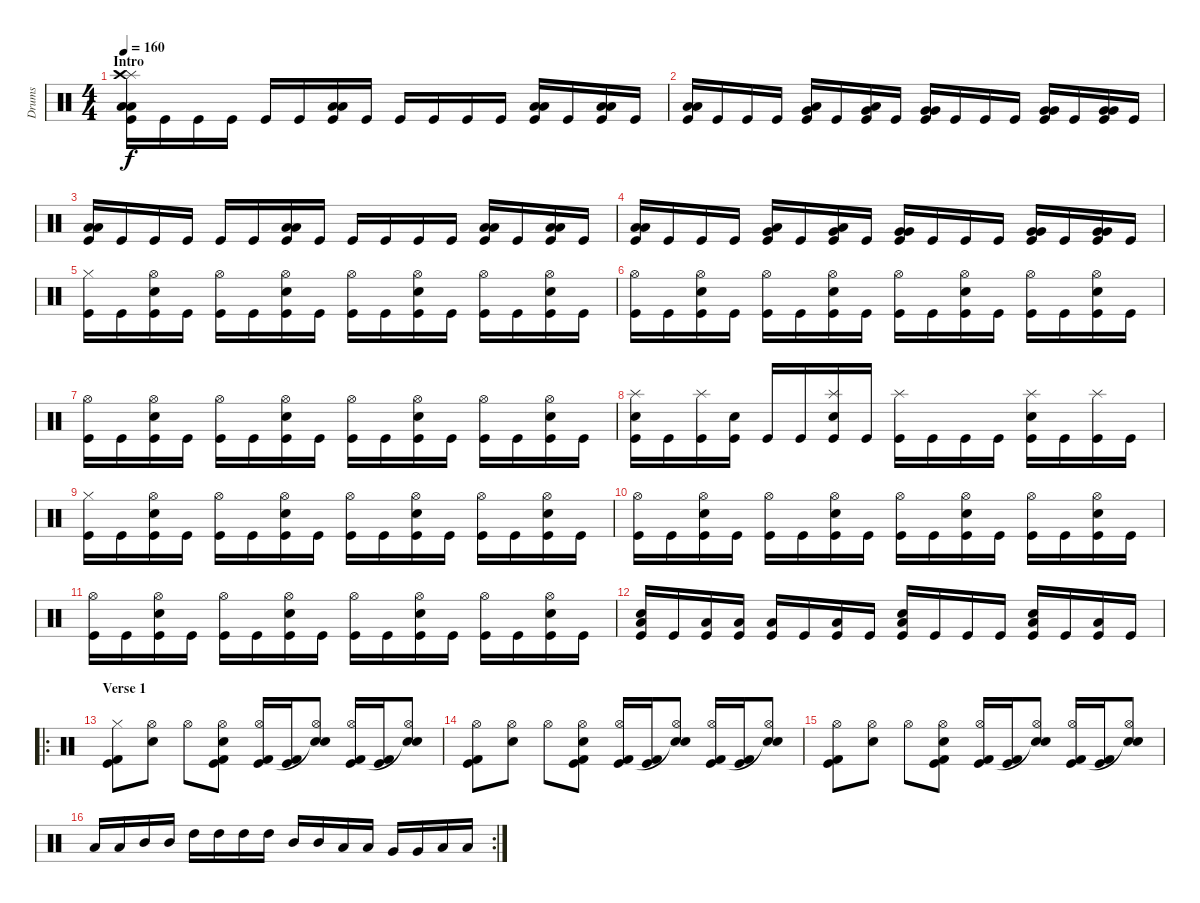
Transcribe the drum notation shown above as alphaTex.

\track ("Drums" "Drums") {instrument percussion}
\staff {score}
\articulation defaults
\ts (4 4)
\section ("" "Intro")
\tempo 160
\clef neutral
\ks c
("Low Floor Tom (hit)" "Kick (hit)" "Splash (hit)" "Low Floor Tom (hit)" "Crash high (hit)").16{dy f} "Kick (hit)".16 "Kick (hit)".16 "Kick (hit)".16 "Kick (hit)".16 "Kick (hit)".16 ("Low Floor Tom (hit)" "Kick (hit)" "Low Floor Tom (hit)").16 "Kick (hit)".16 "Kick (hit)".16 "Kick (hit)".16 "Kick (hit)".16 "Kick (hit)".16 ("Low Floor Tom (hit)" "Kick (hit)" "Low Floor Tom (hit)").16 "Kick (hit)".16 ("Low Floor Tom (hit)" "Kick (hit)" "Low Floor Tom (hit)").16 "Kick (hit)".16 |
("Low Floor Tom (hit)" "Kick (hit)" "Low Floor Tom (hit)").16 "Kick (hit)".16 "Kick (hit)".16 "Kick (hit)".16 ("Low Floor Tom (hit)" "Kick (hit)" "Very Low Tom (hit)").16 "Kick (hit)".16 ("Low Floor Tom (hit)" "Kick (hit)" "Very Low Tom (hit)").16 "Kick (hit)".16 ("Very Low Tom (hit)" "Kick (hit)" "Very Low Tom (hit)").16 "Kick (hit)".16 "Kick (hit)".16 "Kick (hit)".16 ("Very Low Tom (hit)" "Kick (hit)" "Very Low Tom (hit)").16 "Kick (hit)".16 ("Very Low Tom (hit)" "Kick (hit)" "Very Low Tom (hit)").16 "Kick (hit)".16 |
("Low Floor Tom (hit)" "Kick (hit)" "Low Floor Tom (hit)").16 "Kick (hit)".16 "Kick (hit)".16 "Kick (hit)".16 "Kick (hit)".16 "Kick (hit)".16 ("Low Floor Tom (hit)" "Kick (hit)" "Low Floor Tom (hit)").16 "Kick (hit)".16 "Kick (hit)".16 "Kick (hit)".16 "Kick (hit)".16 "Kick (hit)".16 ("Low Floor Tom (hit)" "Kick (hit)" "Low Floor Tom (hit)").16 "Kick (hit)".16 ("Low Floor Tom (hit)" "Kick (hit)" "Low Floor Tom (hit)").16 "Kick (hit)".16 |
("Low Floor Tom (hit)" "Kick (hit)" "Low Floor Tom (hit)").16 "Kick (hit)".16 "Kick (hit)".16 "Kick (hit)".16 ("Low Floor Tom (hit)" "Kick (hit)" "Very Low Tom (hit)").16 "Kick (hit)".16 ("Low Floor Tom (hit)" "Kick (hit)" "Very Low Tom (hit)").16 "Kick (hit)".16 ("Very Low Tom (hit)" "Kick (hit)" "Very Low Tom (hit)").16 "Kick (hit)".16 "Kick (hit)".16 "Kick (hit)".16 ("Very Low Tom (hit)" "Kick (hit)" "Very Low Tom (hit)").16 "Kick (hit)".16 ("Very Low Tom (hit)" "Kick (hit)" "Very Low Tom (hit)").16 "Kick (hit)".16 |
("Kick (hit)" "Hi-Hat (closed)").16 "Kick (hit)".16 ("Electric Snare (hit)" "Kick (hit)" "Hi-Hat (open)").16 "Kick (hit)".16 ("Kick (hit)" "Hi-Hat (open)").16 "Kick (hit)".16 ("Electric Snare (hit)" "Kick (hit)" "Hi-Hat (open)").16 "Kick (hit)".16 ("Kick (hit)" "Hi-Hat (open)").16 "Kick (hit)".16 ("Electric Snare (hit)" "Kick (hit)" "Hi-Hat (open)").16 "Kick (hit)".16 ("Kick (hit)" "Hi-Hat (open)").16 "Kick (hit)".16 ("Electric Snare (hit)" "Kick (hit)" "Hi-Hat (open)").16 "Kick (hit)".16 |
("Kick (hit)" "Hi-Hat (open)").16 "Kick (hit)".16 ("Electric Snare (hit)" "Kick (hit)" "Hi-Hat (open)").16 "Kick (hit)".16 ("Kick (hit)" "Hi-Hat (open)").16 "Kick (hit)".16 ("Electric Snare (hit)" "Kick (hit)" "Hi-Hat (open)").16 "Kick (hit)".16 ("Kick (hit)" "Hi-Hat (open)").16 "Kick (hit)".16 ("Electric Snare (hit)" "Kick (hit)" "Hi-Hat (open)").16 "Kick (hit)".16 ("Kick (hit)" "Hi-Hat (open)").16 "Kick (hit)".16 ("Electric Snare (hit)" "Kick (hit)" "Hi-Hat (open)").16 "Kick (hit)".16 |
("Kick (hit)" "Hi-Hat (open)").16 "Kick (hit)".16 ("Electric Snare (hit)" "Kick (hit)" "Hi-Hat (open)").16 "Kick (hit)".16 ("Kick (hit)" "Hi-Hat (open)").16 "Kick (hit)".16 ("Electric Snare (hit)" "Kick (hit)" "Hi-Hat (open)").16 "Kick (hit)".16 ("Kick (hit)" "Hi-Hat (open)").16 "Kick (hit)".16 ("Electric Snare (hit)" "Kick (hit)" "Hi-Hat (open)").16 "Kick (hit)".16 ("Kick (hit)" "Hi-Hat (open)").16 "Kick (hit)".16 ("Electric Snare (hit)" "Kick (hit)" "Hi-Hat (open)").16 "Kick (hit)".16 |
("Electric Snare (hit)" "Kick (hit)" "Splash (hit)").16 "Kick (hit)".16 ("Kick (hit)" "Splash (hit)").16 ("Electric Snare (hit)" "Kick (hit)").16 "Kick (hit)".16 "Kick (hit)".16 ("Electric Snare (hit)" "Kick (hit)" "Splash (hit)").16 "Kick (hit)".16 ("Kick (hit)" "Splash (hit)").16 "Kick (hit)".16 "Kick (hit)".16 "Kick (hit)".16 ("Electric Snare (hit)" "Kick (hit)" "Splash (hit)").16 "Kick (hit)".16 ("Kick (hit)" "Splash (hit)").16 "Kick (hit)".16 |
("Kick (hit)" "Hi-Hat (closed)").16 "Kick (hit)".16 ("Electric Snare (hit)" "Kick (hit)" "Hi-Hat (open)").16 "Kick (hit)".16 ("Kick (hit)" "Hi-Hat (open)").16 "Kick (hit)".16 ("Electric Snare (hit)" "Kick (hit)" "Hi-Hat (open)").16 "Kick (hit)".16 ("Kick (hit)" "Hi-Hat (open)").16 "Kick (hit)".16 ("Electric Snare (hit)" "Kick (hit)" "Hi-Hat (open)").16 "Kick (hit)".16 ("Kick (hit)" "Hi-Hat (open)").16 "Kick (hit)".16 ("Electric Snare (hit)" "Kick (hit)" "Hi-Hat (open)").16 "Kick (hit)".16 |
("Kick (hit)" "Hi-Hat (open)").16 "Kick (hit)".16 ("Electric Snare (hit)" "Kick (hit)" "Hi-Hat (open)").16 "Kick (hit)".16 ("Kick (hit)" "Hi-Hat (open)").16 "Kick (hit)".16 ("Electric Snare (hit)" "Kick (hit)" "Hi-Hat (open)").16 "Kick (hit)".16 ("Kick (hit)" "Hi-Hat (open)").16 "Kick (hit)".16 ("Electric Snare (hit)" "Kick (hit)" "Hi-Hat (open)").16 "Kick (hit)".16 ("Kick (hit)" "Hi-Hat (open)").16 "Kick (hit)".16 ("Electric Snare (hit)" "Kick (hit)" "Hi-Hat (open)").16 "Kick (hit)".16 |
("Kick (hit)" "Hi-Hat (open)").16 "Kick (hit)".16 ("Electric Snare (hit)" "Kick (hit)" "Hi-Hat (open)").16 "Kick (hit)".16 ("Kick (hit)" "Hi-Hat (open)").16 "Kick (hit)".16 ("Electric Snare (hit)" "Kick (hit)" "Hi-Hat (open)").16 "Kick (hit)".16 ("Kick (hit)" "Hi-Hat (open)").16 "Kick (hit)".16 ("Electric Snare (hit)" "Kick (hit)" "Hi-Hat (open)").16 "Kick (hit)".16 ("Kick (hit)" "Hi-Hat (open)").16 "Kick (hit)".16 ("Electric Snare (hit)" "Kick (hit)" "Hi-Hat (open)").16 "Kick (hit)".16 |
("Electric Snare (hit)" "Kick (hit)" "Low Floor Tom (hit)").16 "Kick (hit)".16 ("Kick (hit)" "Low Floor Tom (hit)").16 ("Kick (hit)" "Low Floor Tom (hit)").16 ("Kick (hit)" "Low Floor Tom (hit)").16 "Kick (hit)".16 ("Kick (hit)" "Low Floor Tom (hit)").16 "Kick (hit)".16 ("Electric Snare (hit)" "Kick (hit)" "Low Floor Tom (hit)").16 "Kick (hit)".16 "Kick (hit)".16 "Kick (hit)".16 ("Electric Snare (hit)" "Kick (hit)" "Low Floor Tom (hit)").16 "Kick (hit)".16 ("Kick (hit)" "Low Floor Tom (hit)").16 "Kick (hit)".16 |
\ro
\section ("" "Verse 1")
("Hi-Hat (closed)" "Kick (hit) 2" "Kick (hit)").8 ("Electric Snare (hit)" "Hi-Hat (open)").8 "Hi-Hat (open)".8 ("Electric Snare (hit)" "Hi-Hat (open)" "Kick (hit) 2" "Kick (hit)").8 ("Hi-Hat (open)" "Kick (hit) 2" "Kick (hit)").16 ("Kick (hit) 2" "Kick (hit)").16 ("Electric Snare (hit)" "Hi-Hat (open)" "Snare (hit)"{t}).8 ("Hi-Hat (open)" "Kick (hit) 2" "Kick (hit)").16 ("Kick (hit) 2" "Kick (hit)").16 ("Electric Snare (hit)" "Hi-Hat (open)" "Snare (hit)"{t}).8 |
("Hi-Hat (open)" "Kick (hit) 2" "Kick (hit)").8 ("Electric Snare (hit)" "Hi-Hat (open)").8 "Hi-Hat (open)".8 ("Electric Snare (hit)" "Hi-Hat (open)" "Kick (hit) 2" "Kick (hit)").8 ("Hi-Hat (open)" "Kick (hit) 2" "Kick (hit)").16 ("Kick (hit) 2" "Kick (hit)").16 ("Electric Snare (hit)" "Hi-Hat (open)" "Snare (hit)"{t}).8 ("Hi-Hat (open)" "Kick (hit) 2" "Kick (hit)").16 ("Kick (hit) 2" "Kick (hit)").16 ("Electric Snare (hit)" "Hi-Hat (open)" "Snare (hit)"{t}).8 |
("Hi-Hat (open)" "Kick (hit) 2" "Kick (hit)").8 ("Electric Snare (hit)" "Hi-Hat (open)").8 "Hi-Hat (open)".8 ("Electric Snare (hit)" "Hi-Hat (open)" "Kick (hit) 2" "Kick (hit)").8 ("Hi-Hat (open)" "Kick (hit) 2" "Kick (hit)").16 ("Kick (hit) 2" "Kick (hit)").16 ("Electric Snare (hit)" "Hi-Hat (open)" "Snare (hit)"{t}).8 ("Hi-Hat (open)" "Kick (hit) 2" "Kick (hit)").16 ("Kick (hit) 2" "Kick (hit)").16 ("Electric Snare (hit)" "Hi-Hat (open)" "Snare (hit)"{t}).8 |
\rc 2 "Low Tom (hit)".16 "Low Tom (hit)".16 "Mid Tom (hit)".16 "Mid Tom (hit)".16 "High Tom (hit)".16 "High Tom (hit)".16 "High Tom (hit)".16 "High Tom (hit)".16 "Mid Tom (hit)".16 "Mid Tom (hit)".16 "Low Tom (hit)".16 "Low Tom (hit)".16 "Very Low Tom (hit)".16 "Very Low Tom (hit)".16 "Low Floor Tom (hit)".16 "Low Floor Tom (hit)".16
